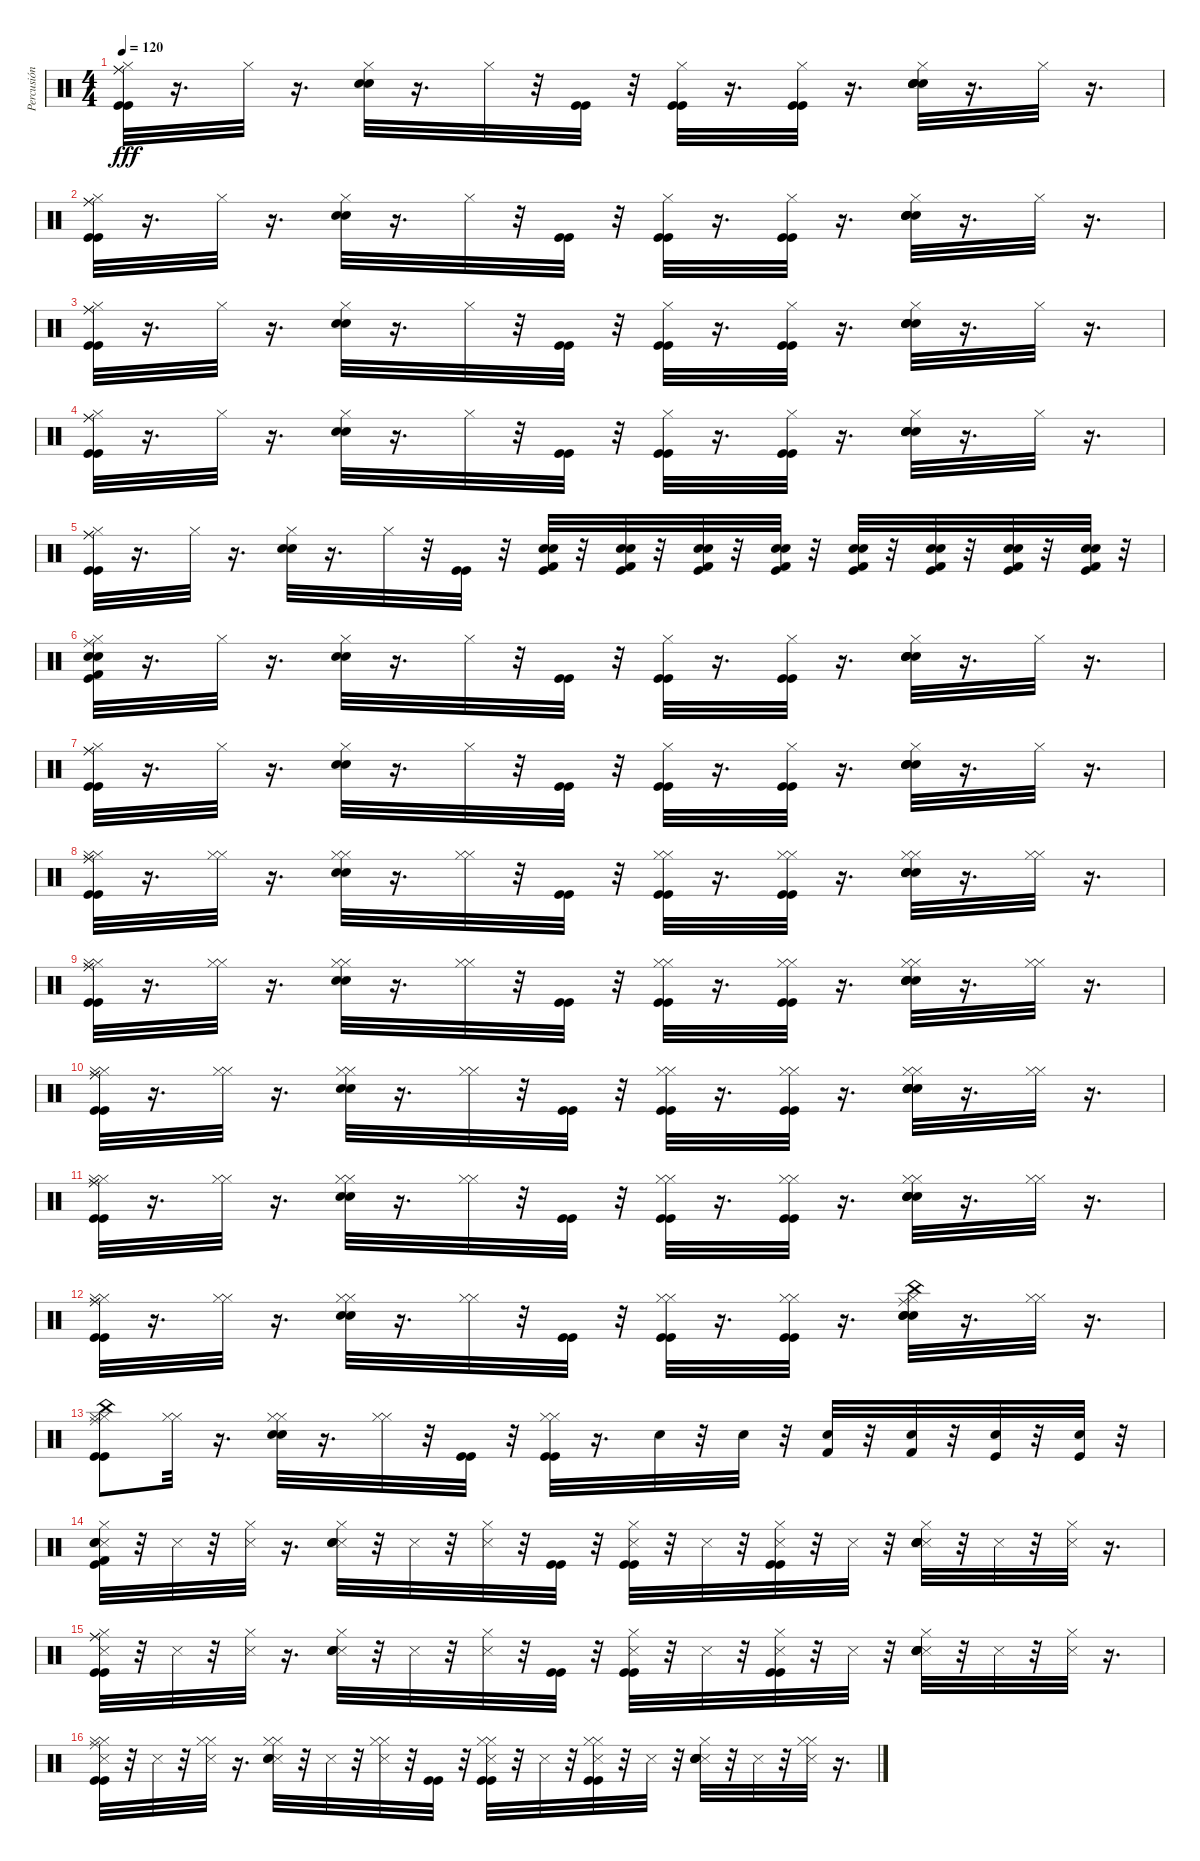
\track ("Percusión" "Percusión") {instrument percussion}
\staff {score}
\articulation defaults
\ts (4 4)
\tempo 120
\clef neutral
\ks c
("Hi-Hat (closed)" "Kick (hit)" "Ride (middle)" "Kick (hit)" "Ride (middle)").32{dy fff} r.16{d} "Hi-Hat (closed)".32 r.16{d} ("Snare (hit) 2" "Electric Snare (hit)" "Hi-Hat (closed)").32 r.16{d} "Hi-Hat (closed)".32 r.32 ("Kick (hit)" "Kick (hit)").32 r.32 ("Hi-Hat (closed)" "Kick (hit)" "Kick (hit)").32 r.16{d} ("Hi-Hat (closed)" "Kick (hit)" "Kick (hit)").32 r.16{d} ("Hi-Hat (closed)" "Snare (hit) 2" "Electric Snare (hit)" "Snare (hit) 2" "Electric Snare (hit)").32 r.16{d} "Hi-Hat (closed)".32 r.16{d} |
("Hi-Hat (closed)" "Kick (hit)" "Ride (middle)" "Kick (hit)" "Ride (middle)").32 r.16{d} "Hi-Hat (closed)".32 r.16{d} ("Snare (hit) 2" "Electric Snare (hit)" "Hi-Hat (closed)").32 r.16{d} "Hi-Hat (closed)".32 r.32 ("Kick (hit)" "Kick (hit)").32 r.32 ("Hi-Hat (closed)" "Kick (hit)" "Kick (hit)").32 r.16{d} ("Hi-Hat (closed)" "Kick (hit)" "Kick (hit)").32 r.16{d} ("Hi-Hat (closed)" "Snare (hit) 2" "Electric Snare (hit)" "Snare (hit) 2" "Electric Snare (hit)").32 r.16{d} "Hi-Hat (closed)".32 r.16{d} |
("Hi-Hat (closed)" "Kick (hit)" "Ride (middle)" "Kick (hit)" "Ride (middle)").32 r.16{d} "Hi-Hat (closed)".32 r.16{d} ("Snare (hit) 2" "Electric Snare (hit)" "Hi-Hat (closed)").32 r.16{d} "Hi-Hat (closed)".32 r.32 ("Kick (hit)" "Kick (hit)").32 r.32 ("Hi-Hat (closed)" "Kick (hit)" "Kick (hit)").32 r.16{d} ("Hi-Hat (closed)" "Kick (hit)" "Kick (hit)").32 r.16{d} ("Hi-Hat (closed)" "Snare (hit) 2" "Electric Snare (hit)" "Snare (hit) 2" "Electric Snare (hit)").32 r.16{d} "Hi-Hat (closed)".32 r.16{d} |
("Hi-Hat (closed)" "Kick (hit)" "Ride (middle)" "Kick (hit)" "Ride (middle)").32 r.16{d} "Hi-Hat (closed)".32 r.16{d} ("Snare (hit) 2" "Electric Snare (hit)" "Hi-Hat (closed)").32 r.16{d} "Hi-Hat (closed)".32 r.32 ("Kick (hit)" "Kick (hit)").32 r.32 ("Hi-Hat (closed)" "Kick (hit)" "Kick (hit)").32 r.16{d} ("Hi-Hat (closed)" "Kick (hit)" "Kick (hit)").32 r.16{d} ("Hi-Hat (closed)" "Snare (hit) 2" "Electric Snare (hit)" "Snare (hit) 2" "Electric Snare (hit)").32 r.16{d} "Hi-Hat (closed)".32 r.16{d} |
("Hi-Hat (closed)" "Kick (hit)" "Ride (middle)" "Kick (hit)" "Ride (middle)").32 r.16{d} "Hi-Hat (closed)".32 r.16{d} ("Snare (hit) 2" "Electric Snare (hit)" "Hi-Hat (closed)").32 r.16{d} "Hi-Hat (closed)".32 r.32 ("Kick (hit)" "Kick (hit)").32 r.32 ("Kick (hit)" "Kick (hit) 2" "Snare (hit) 2" "Electric Snare (hit)").32 r.32 ("Kick (hit)" "Kick (hit) 2" "Snare (hit) 2" "Electric Snare (hit)").32 r.32 ("Kick (hit)" "Kick (hit) 2" "Snare (hit) 2" "Electric Snare (hit)").32 r.32 ("Kick (hit)" "Kick (hit) 2" "Snare (hit) 2" "Electric Snare (hit)").32 r.32 ("Kick (hit)" "Snare (hit) 2" "Kick (hit) 2" "Electric Snare (hit)").32 r.32 ("Kick (hit)" "Snare (hit) 2" "Kick (hit) 2" "Electric Snare (hit)").32 r.32 ("Kick (hit) 2" "Electric Snare (hit)" "Snare (hit) 2" "Kick (hit)").32 r.32 ("Kick (hit) 2" "Electric Snare (hit)" "Snare (hit) 2" "Kick (hit)").32 r.32 |
("Kick (hit) 2" "Snare (hit) 2" "Electric Snare (hit)" "Hi-Hat (closed)" "Kick (hit)" "Ride (middle)").32 r.16{d} "Hi-Hat (closed)".32 r.16{d} ("Snare (hit) 2" "Electric Snare (hit)" "Hi-Hat (closed)").32 r.16{d} "Hi-Hat (closed)".32 r.32 ("Kick (hit)" "Kick (hit)").32 r.32 ("Hi-Hat (closed)" "Kick (hit)" "Kick (hit)").32 r.16{d} ("Hi-Hat (closed)" "Kick (hit)" "Kick (hit)").32 r.16{d} ("Hi-Hat (closed)" "Snare (hit) 2" "Electric Snare (hit)" "Snare (hit) 2" "Electric Snare (hit)").32 r.16{d} "Hi-Hat (closed)".32 r.16{d} |
("Hi-Hat (closed)" "Kick (hit)" "Ride (middle)" "Kick (hit)" "Ride (middle)").32 r.16{d} "Hi-Hat (closed)".32 r.16{d} ("Snare (hit) 2" "Electric Snare (hit)" "Hi-Hat (closed)").32 r.16{d} "Hi-Hat (closed)".32 r.32 ("Kick (hit)" "Kick (hit)").32 r.32 ("Hi-Hat (closed)" "Kick (hit)" "Kick (hit)").32 r.16{d} ("Hi-Hat (closed)" "Kick (hit)" "Kick (hit)").32 r.16{d} ("Hi-Hat (closed)" "Snare (hit) 2" "Electric Snare (hit)" "Snare (hit) 2" "Electric Snare (hit)").32 r.16{d} "Hi-Hat (closed)".32 r.16{d} |
("Kick (hit)" "Hi-Hat (closed)" "Ride (middle)" "Kick (hit)" "Hi-Hat (closed)" "Ride (middle)").32 r.16{d} ("Hi-Hat (closed)" "Hi-Hat (closed)").32 r.16{d} ("Snare (hit) 2" "Electric Snare (hit)" "Hi-Hat (closed)" "Hi-Hat (closed)").32 r.16{d} ("Hi-Hat (closed)" "Hi-Hat (closed)").32 r.32 ("Kick (hit)" "Kick (hit)").32 r.32 ("Kick (hit)" "Hi-Hat (closed)" "Kick (hit)" "Hi-Hat (closed)").32 r.16{d} ("Kick (hit)" "Hi-Hat (closed)" "Kick (hit)" "Hi-Hat (closed)").32 r.16{d} ("Snare (hit) 2" "Electric Snare (hit)" "Hi-Hat (closed)" "Snare (hit) 2" "Electric Snare (hit)" "Hi-Hat (closed)").32 r.16{d} ("Hi-Hat (closed)" "Hi-Hat (closed)").32 r.16{d} |
("Kick (hit)" "Hi-Hat (closed)" "Ride (middle)" "Kick (hit)" "Hi-Hat (closed)" "Ride (middle)").32 r.16{d} ("Hi-Hat (closed)" "Hi-Hat (closed)").32 r.16{d} ("Snare (hit) 2" "Electric Snare (hit)" "Hi-Hat (closed)" "Hi-Hat (closed)").32 r.16{d} ("Hi-Hat (closed)" "Hi-Hat (closed)").32 r.32 ("Kick (hit)" "Kick (hit)").32 r.32 ("Kick (hit)" "Hi-Hat (closed)" "Kick (hit)" "Hi-Hat (closed)").32 r.16{d} ("Kick (hit)" "Hi-Hat (closed)" "Kick (hit)" "Hi-Hat (closed)").32 r.16{d} ("Snare (hit) 2" "Electric Snare (hit)" "Hi-Hat (closed)" "Snare (hit) 2" "Electric Snare (hit)" "Hi-Hat (closed)").32 r.16{d} ("Hi-Hat (closed)" "Hi-Hat (closed)").32 r.16{d} |
("Kick (hit)" "Hi-Hat (closed)" "Ride (middle)" "Kick (hit)" "Hi-Hat (closed)" "Ride (middle)").32 r.16{d} ("Hi-Hat (closed)" "Hi-Hat (closed)").32 r.16{d} ("Snare (hit) 2" "Electric Snare (hit)" "Hi-Hat (closed)" "Hi-Hat (closed)").32 r.16{d} ("Hi-Hat (closed)" "Hi-Hat (closed)").32 r.32 ("Kick (hit)" "Kick (hit)").32 r.32 ("Kick (hit)" "Hi-Hat (closed)" "Kick (hit)" "Hi-Hat (closed)").32 r.16{d} ("Kick (hit)" "Hi-Hat (closed)" "Kick (hit)" "Hi-Hat (closed)").32 r.16{d} ("Snare (hit) 2" "Electric Snare (hit)" "Hi-Hat (closed)" "Snare (hit) 2" "Electric Snare (hit)" "Hi-Hat (closed)").32 r.16{d} ("Hi-Hat (closed)" "Hi-Hat (closed)").32 r.16{d} |
("Kick (hit)" "Hi-Hat (closed)" "Ride (middle)" "Kick (hit)" "Hi-Hat (closed)" "Ride (middle)").32 r.16{d} ("Hi-Hat (closed)" "Hi-Hat (closed)").32 r.16{d} ("Snare (hit) 2" "Electric Snare (hit)" "Hi-Hat (closed)" "Hi-Hat (closed)").32 r.16{d} ("Hi-Hat (closed)" "Hi-Hat (closed)").32 r.32 ("Kick (hit)" "Kick (hit)").32 r.32 ("Kick (hit)" "Hi-Hat (closed)" "Kick (hit)" "Hi-Hat (closed)").32 r.16{d} ("Kick (hit)" "Hi-Hat (closed)" "Kick (hit)" "Hi-Hat (closed)").32 r.16{d} ("Snare (hit) 2" "Electric Snare (hit)" "Hi-Hat (closed)" "Snare (hit) 2" "Electric Snare (hit)" "Hi-Hat (closed)").32 r.16{d} ("Hi-Hat (closed)" "Hi-Hat (closed)").32 r.16{d} |
("Kick (hit)" "Hi-Hat (closed)" "Ride (middle)" "Kick (hit)" "Hi-Hat (closed)" "Ride (middle)").32 r.16{d} ("Hi-Hat (closed)" "Hi-Hat (closed)").32 r.16{d} ("Electric Snare (hit)" "Snare (hit) 2" "Hi-Hat (closed)" "Hi-Hat (closed)").32 r.16{d} ("Hi-Hat (closed)" "Hi-Hat (closed)").32 r.32 ("Kick (hit)" "Kick (hit)").32 r.32 ("Kick (hit)" "Hi-Hat (closed)" "Kick (hit)" "Hi-Hat (closed)").32 r.16{d} ("Kick (hit)" "Hi-Hat (closed)" "Kick (hit)" "Hi-Hat (closed)").32 r.16{d} ("Ride (middle)" "China (hit)" "Snare (hit) 2" "Electric Snare (hit)" "Hi-Hat (closed)" "Snare (hit) 2").32 r.16{d} ("Hi-Hat (closed)" "Hi-Hat (closed)").32 r.16{d} |
("China (hit)" "Kick (hit)" "Hi-Hat (closed)" "Ride (middle)" "Kick (hit)" "Hi-Hat (closed)").8 ("Hi-Hat (closed)" "Hi-Hat (closed)").32 r.16{d} ("Snare (hit) 2" "Electric Snare (hit)" "Hi-Hat (closed)" "Hi-Hat (closed)").32 r.16{d} ("Hi-Hat (closed)" "Hi-Hat (closed)").32 r.32 ("Kick (hit)" "Kick (hit)").32 r.32 ("Kick (hit)" "Hi-Hat (closed)" "Kick (hit)" "Hi-Hat (closed)").32 r.16{d} "Electric Snare (hit)".32 r.32 "Electric Snare (hit)".32 r.32 ("Kick (hit) 2" "Electric Snare (hit)").32 r.32 ("Kick (hit) 2" "Electric Snare (hit)").32 r.32 ("Snare (hit) 2" "Kick (hit)").32 r.32 ("Snare (hit) 2" "Kick (hit)").32 r.32 |
("Snare (side stick) 3" "Kick (hit) 2" "Snare (hit) 2" "Electric Snare (hit)" "Hi-Hat (closed)" "Kick (hit)").32 r.32 "Snare (side stick) 3".32 r.32 ("Snare (side stick) 3" "Hi-Hat (closed)").32 r.16{d} ("Snare (side stick) 3" "Snare (hit) 2" "Electric Snare (hit)" "Hi-Hat (closed)").32 r.32 "Snare (side stick) 3".32 r.32 ("Snare (side stick) 3" "Hi-Hat (closed)").32 r.32 ("Kick (hit)" "Kick (hit)").32 r.32 ("Snare (side stick) 3" "Hi-Hat (closed)" "Kick (hit)" "Kick (hit)").32 r.32 "Snare (side stick) 3".32 r.32 ("Snare (side stick) 3" "Hi-Hat (closed)" "Kick (hit)" "Kick (hit)").32 r.32 "Snare (side stick) 3".32 r.32 ("Snare (side stick) 3" "Hi-Hat (closed)" "Snare (hit) 2" "Electric Snare (hit)" "Snare (hit) 2" "Electric Snare (hit)").32 r.32 "Snare (side stick) 3".32 r.32 ("Snare (side stick) 3" "Hi-Hat (closed)").32 r.16{d} |
("Snare (side stick) 3" "Hi-Hat (closed)" "Kick (hit)" "Ride (middle)" "Kick (hit)" "Ride (middle)").32 r.32 "Snare (side stick) 3".32 r.32 ("Snare (side stick) 3" "Hi-Hat (closed)").32 r.16{d} ("Snare (side stick) 3" "Snare (hit) 2" "Electric Snare (hit)" "Hi-Hat (closed)").32 r.32 "Snare (side stick) 3".32 r.32 ("Snare (side stick) 3" "Hi-Hat (closed)").32 r.32 ("Kick (hit)" "Kick (hit)").32 r.32 ("Snare (side stick) 3" "Hi-Hat (closed)" "Kick (hit)" "Kick (hit)").32 r.32 "Snare (side stick) 3".32 r.32 ("Snare (side stick) 3" "Hi-Hat (closed)" "Kick (hit)" "Kick (hit)").32 r.32 "Snare (side stick) 3".32 r.32 ("Snare (side stick) 3" "Hi-Hat (closed)" "Snare (hit) 2" "Electric Snare (hit)" "Snare (hit) 2" "Electric Snare (hit)").32 r.32 "Snare (side stick) 3".32 r.32 ("Snare (side stick) 3" "Hi-Hat (closed)").32 r.16{d} |
("Snare (side stick) 3" "Kick (hit)" "Hi-Hat (closed)" "Ride (middle)" "Kick (hit)" "Hi-Hat (closed)").32 r.32 "Snare (side stick) 3".32 r.32 ("Snare (side stick) 3" "Hi-Hat (closed)" "Hi-Hat (closed)").32 r.16{d} ("Snare (side stick) 3" "Snare (hit) 2" "Electric Snare (hit)" "Hi-Hat (closed)" "Hi-Hat (closed)").32 r.32 "Snare (side stick) 3".32 r.32 ("Snare (side stick) 3" "Hi-Hat (closed)" "Hi-Hat (closed)").32 r.32 ("Kick (hit)" "Kick (hit)").32 r.32 ("Snare (side stick) 3" "Kick (hit)" "Hi-Hat (closed)" "Kick (hit)" "Hi-Hat (closed)").32 r.32 "Snare (side stick) 3".32 r.32 ("Snare (side stick) 3" "Kick (hit)" "Hi-Hat (closed)" "Kick (hit)" "Hi-Hat (closed)").32 r.32 "Snare (side stick) 3".32 r.32 ("Snare (side stick) 3" "Snare (hit) 2" "Electric Snare (hit)" "Hi-Hat (closed)" "Snare (hit) 2" "Electric Snare (hit)").32 r.32 "Snare (side stick) 3".32 r.32 ("Snare (side stick) 3" "Hi-Hat (closed)" "Hi-Hat (closed)").32 r.16{d}
